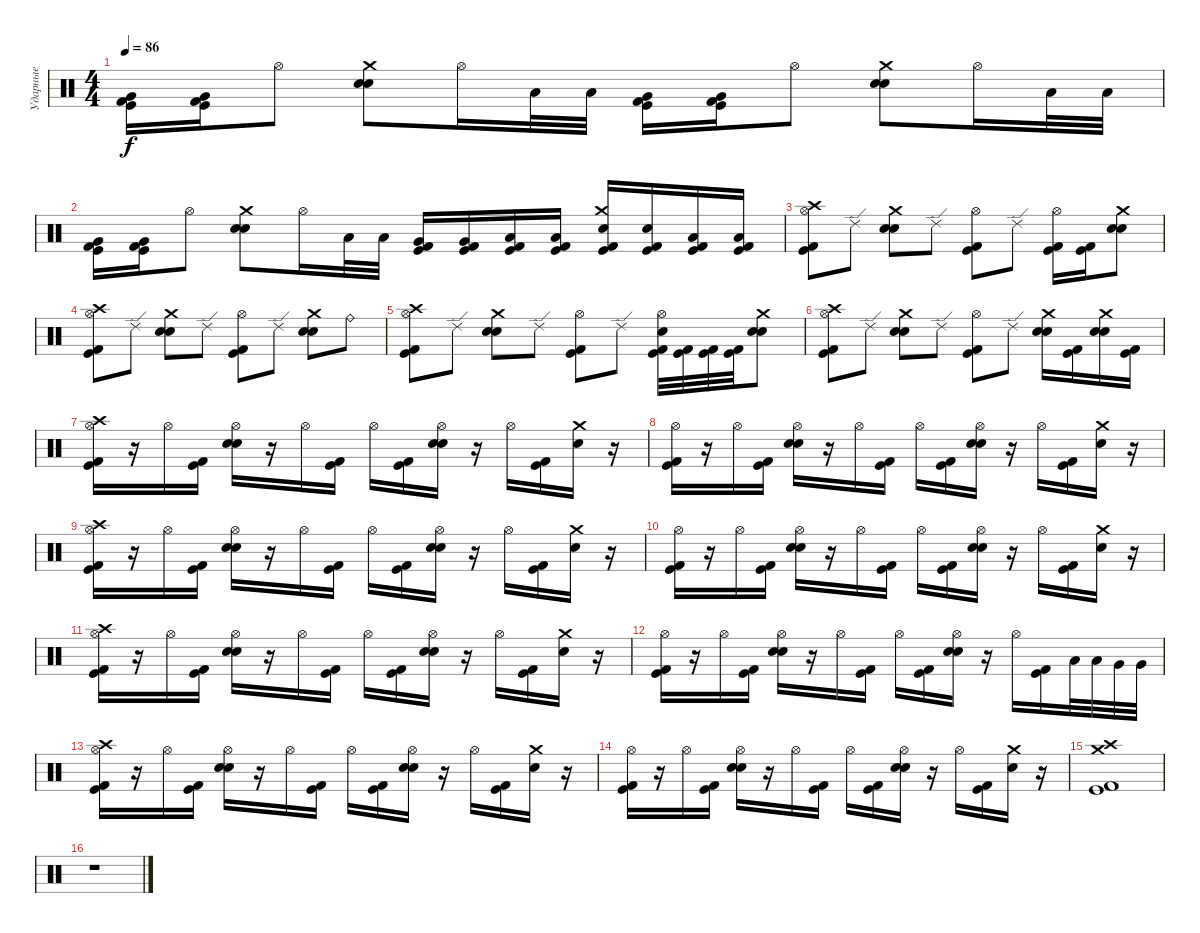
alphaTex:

\track ("Ударные" "Ударные") {instrument percussion}
\staff {score}
\articulation defaults
\ts (4 4)
\tempo 86
\clef neutral
\ks c
("Very Low Tom (hit)" "Kick (hit) 2" "Kick (hit)").16{dy f} ("Very Low Tom (hit)" "Kick (hit) 2" "Kick (hit)").16 "Hi-Hat (open)".8 ("Crash medium (hit)" "Electric Snare (hit)" "Snare (hit)").8 "Hi-Hat (open)".16 "Low Tom (hit)".32 "Low Floor Tom (hit)".32 ("Very Low Tom (hit)" "Kick (hit) 2" "Kick (hit)").16 ("Very Low Tom (hit)" "Kick (hit) 2" "Kick (hit)").16 "Hi-Hat (open)".8 ("Crash medium (hit)" "Electric Snare (hit)" "Snare (hit)").8 "Hi-Hat (open)".16 "Low Tom (hit)".32 "Low Floor Tom (hit)".32 |
("Very Low Tom (hit)" "Kick (hit) 2" "Kick (hit)").16 ("Very Low Tom (hit)" "Kick (hit) 2" "Kick (hit)").16 "Hi-Hat (open)".8 ("Crash medium (hit)" "Electric Snare (hit)" "Snare (hit)").8 "Hi-Hat (open)".16 "Low Tom (hit)".32 "Low Floor Tom (hit)".32 ("Very Low Tom (hit)" "Kick (hit) 2" "Kick (hit)").16 ("Very Low Tom (hit)" "Kick (hit) 2" "Kick (hit)").16 ("Low Floor Tom (hit)" "Kick (hit) 2" "Kick (hit)").16 ("Low Floor Tom (hit)" "Kick (hit) 2" "Kick (hit)").16 ("Crash medium (hit)" "Electric Snare (hit)" "Kick (hit) 2" "Kick (hit)").16 ("Electric Snare (hit)" "Kick (hit) 2" "Kick (hit)").16 ("Low Floor Tom (hit)" "Kick (hit) 2" "Kick (hit)").16 ("Low Floor Tom (hit)" "Kick (hit) 2" "Kick (hit)").16 |
("Hi-Hat (open)" "Crash high (hit)" "Kick (hit) 2" "Kick (hit)").8 "Ride (edge) 2".8 ("Crash medium (hit)" "Snare (hit)" "Electric Snare (hit)").8 "Ride (edge) 2".8 ("Hi-Hat (open)" "Kick (hit) 2" "Kick (hit)").8 "Ride (edge) 2".8 ("Hi-Hat (open)" "Kick (hit) 2" "Kick (hit)").16 ("Kick (hit) 2" "Kick (hit)").16 ("Crash medium (hit)" "Snare (hit)" "Electric Snare (hit)").8 |
("Hi-Hat (open)" "Crash high (hit)" "Kick (hit) 2" "Kick (hit)").8 "Ride (edge) 2".8 ("Crash medium (hit)" "Snare (hit)" "Electric Snare (hit)").8 "Ride (edge) 2".8 ("Hi-Hat (open)" "Kick (hit) 2" "Kick (hit)").8 "Ride (edge) 2".8 ("Crash medium (hit)" "Snare (hit)" "Electric Snare (hit)").8 "Ride (bell)".8 |
("Hi-Hat (open)" "Crash high (hit)" "Kick (hit) 2" "Kick (hit)").8 "Ride (edge) 2".8 ("Crash medium (hit)" "Snare (hit)" "Electric Snare (hit)").8 "Ride (edge) 2".8 ("Hi-Hat (open)" "Kick (hit) 2" "Kick (hit)").8 "Ride (edge) 2".8 ("Hi-Hat (open)" "Electric Snare (hit)" "Kick (hit) 2" "Kick (hit)").32 ("Kick (hit) 2" "Kick (hit)").32 ("Kick (hit) 2" "Kick (hit)").32 ("Kick (hit) 2" "Kick (hit)").32 ("Crash medium (hit)" "Snare (hit)" "Electric Snare (hit)").8 |
("Hi-Hat (open)" "Crash high (hit)" "Kick (hit) 2" "Kick (hit)").8 "Ride (edge) 2".8 ("Crash medium (hit)" "Snare (hit)" "Electric Snare (hit)").8 "Ride (edge) 2".8 ("Hi-Hat (open)" "Kick (hit) 2" "Kick (hit)").8 "Ride (edge) 2".8 ("Crash medium (hit)" "Snare (hit)" "Electric Snare (hit)").16 ("Kick (hit) 2" "Kick (hit)").16 ("Crash medium (hit)" "Snare (hit)" "Electric Snare (hit)").16 ("Kick (hit) 2" "Kick (hit)").16 |
("Hi-Hat (open)" "Crash high (hit)" "Kick (hit) 2" "Kick (hit)").16 r.16 "Hi-Hat (open)".16 ("Kick (hit) 2" "Kick (hit)").16 ("Hi-Hat (open)" "Snare (hit)" "Electric Snare (hit)").16 r.16 "Hi-Hat (open)".16 ("Kick (hit) 2" "Kick (hit)").16 "Hi-Hat (open)".16 ("Kick (hit) 2" "Kick (hit)").16 ("Hi-Hat (open)" "Snare (hit)" "Electric Snare (hit)").16 r.16 "Hi-Hat (open)".16 ("Kick (hit) 2" "Kick (hit)").16 ("Crash medium (hit)" "Electric Snare (hit)").16 r.16 |
("Hi-Hat (open)" "Kick (hit) 2" "Kick (hit)").16 r.16 "Hi-Hat (open)".16 ("Kick (hit) 2" "Kick (hit)").16 ("Hi-Hat (open)" "Snare (hit)" "Electric Snare (hit)").16 r.16 "Hi-Hat (open)".16 ("Kick (hit) 2" "Kick (hit)").16 "Hi-Hat (open)".16 ("Kick (hit) 2" "Kick (hit)").16 ("Hi-Hat (open)" "Snare (hit)" "Electric Snare (hit)").16 r.16 "Hi-Hat (open)".16 ("Kick (hit) 2" "Kick (hit)").16 ("Crash medium (hit)" "Electric Snare (hit)").16 r.16 |
("Hi-Hat (open)" "Crash high (hit)" "Kick (hit) 2" "Kick (hit)").16 r.16 "Hi-Hat (open)".16 ("Kick (hit) 2" "Kick (hit)").16 ("Hi-Hat (open)" "Snare (hit)" "Electric Snare (hit)").16 r.16 "Hi-Hat (open)".16 ("Kick (hit) 2" "Kick (hit)").16 "Hi-Hat (open)".16 ("Kick (hit) 2" "Kick (hit)").16 ("Hi-Hat (open)" "Snare (hit)" "Electric Snare (hit)").16 r.16 "Hi-Hat (open)".16 ("Kick (hit) 2" "Kick (hit)").16 ("Crash medium (hit)" "Electric Snare (hit)").16 r.16 |
("Hi-Hat (open)" "Kick (hit) 2" "Kick (hit)").16 r.16 "Hi-Hat (open)".16 ("Kick (hit) 2" "Kick (hit)").16 ("Hi-Hat (open)" "Snare (hit)" "Electric Snare (hit)").16 r.16 "Hi-Hat (open)".16 ("Kick (hit) 2" "Kick (hit)").16 "Hi-Hat (open)".16 ("Kick (hit) 2" "Kick (hit)").16 ("Hi-Hat (open)" "Snare (hit)" "Electric Snare (hit)").16 r.16 "Hi-Hat (open)".16 ("Kick (hit) 2" "Kick (hit)").16 ("Crash medium (hit)" "Electric Snare (hit)").16 r.16 |
("Hi-Hat (open)" "Crash high (hit)" "Kick (hit) 2" "Kick (hit)").16 r.16 "Hi-Hat (open)".16 ("Kick (hit) 2" "Kick (hit)").16 ("Hi-Hat (open)" "Snare (hit)" "Electric Snare (hit)").16 r.16 "Hi-Hat (open)".16 ("Kick (hit) 2" "Kick (hit)").16 "Hi-Hat (open)".16 ("Kick (hit) 2" "Kick (hit)").16 ("Hi-Hat (open)" "Snare (hit)" "Electric Snare (hit)").16 r.16 "Hi-Hat (open)".16 ("Kick (hit) 2" "Kick (hit)").16 ("Crash medium (hit)" "Electric Snare (hit)").16 r.16 |
("Hi-Hat (open)" "Kick (hit) 2" "Kick (hit)").16 r.16 "Hi-Hat (open)".16 ("Kick (hit) 2" "Kick (hit)").16 ("Hi-Hat (open)" "Snare (hit)" "Electric Snare (hit)").16 r.16 "Hi-Hat (open)".16 ("Kick (hit) 2" "Kick (hit)").16 "Hi-Hat (open)".16 ("Kick (hit) 2" "Kick (hit)").16 ("Hi-Hat (open)" "Snare (hit)" "Electric Snare (hit)").16 r.16 "Hi-Hat (open)".16 ("Kick (hit) 2" "Kick (hit)").16 "Low Tom (hit)".32 "Low Tom (hit)".32 "Very Low Tom (hit)".32 "Very Low Tom (hit)".32 |
("Hi-Hat (open)" "Crash high (hit)" "Kick (hit) 2" "Kick (hit)").16 r.16 "Hi-Hat (open)".16 ("Kick (hit) 2" "Kick (hit)").16 ("Hi-Hat (open)" "Snare (hit)" "Electric Snare (hit)").16 r.16 "Hi-Hat (open)".16 ("Kick (hit) 2" "Kick (hit)").16 "Hi-Hat (open)".16 ("Kick (hit) 2" "Kick (hit)").16 ("Hi-Hat (open)" "Snare (hit)" "Electric Snare (hit)").16 r.16 "Hi-Hat (open)".16 ("Kick (hit) 2" "Kick (hit)").16 ("Crash medium (hit)" "Electric Snare (hit)").16 r.16 |
("Hi-Hat (open)" "Kick (hit) 2" "Kick (hit)").16 r.16 "Hi-Hat (open)".16 ("Kick (hit) 2" "Kick (hit)").16 ("Hi-Hat (open)" "Snare (hit)" "Electric Snare (hit)").16 r.16 "Hi-Hat (open)".16 ("Kick (hit) 2" "Kick (hit)").16 "Hi-Hat (open)".16 ("Kick (hit) 2" "Kick (hit)").16 ("Hi-Hat (open)" "Snare (hit)" "Electric Snare (hit)").16 r.16 "Hi-Hat (open)".16 ("Kick (hit) 2" "Kick (hit)").16 ("Crash medium (hit)" "Electric Snare (hit)").16 r.16 |
("Crash high (hit)" "Crash medium (hit)" "Kick (hit) 2" "Kick (hit)").1 |
r.1{volume 0}
